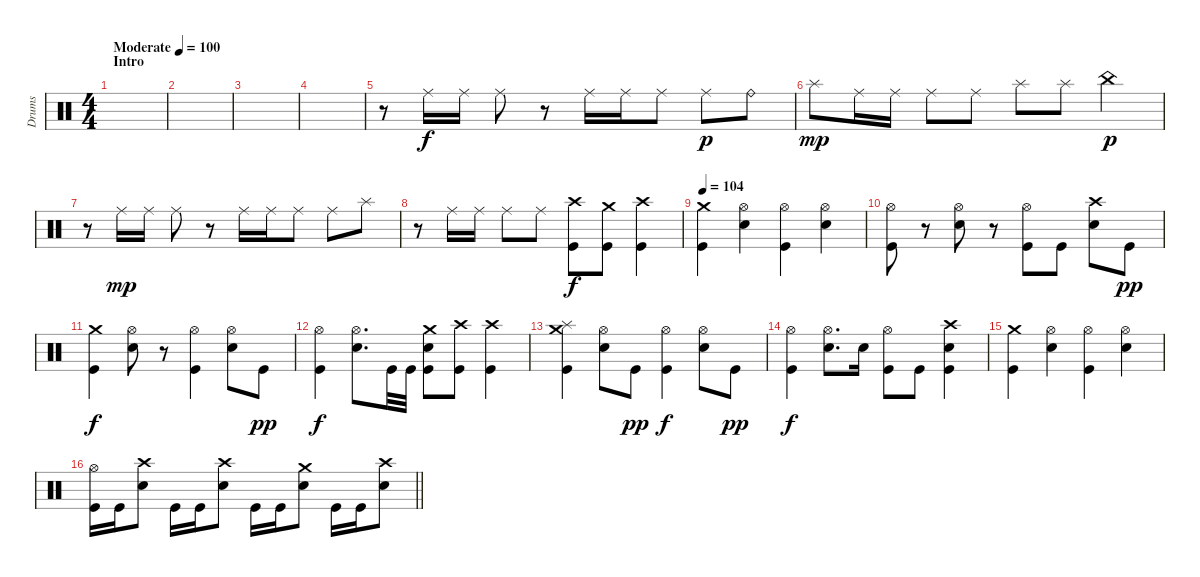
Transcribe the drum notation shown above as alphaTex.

\track ("Drums" "Drums") {instrument percussion}
\staff {score}
\articulation defaults
\ts (4 4)
\section ("" "Intro")
\tempo (100 "Moderate")
\clef neutral
\ks c
|
|
|
|
r.8 "Ride (middle)".16 "Ride (middle)".16 "Ride (middle)".8 r.8 "Ride (middle)".16 "Ride (middle)".16 "Ride (middle)".8 "Ride (middle)".8{dy p} "Ride (bell)".8 |
"Splash (hit)".8{dy mp} "Ride (middle)".16 "Ride (middle)".16 "Ride (middle)".8 "Ride (middle)".8 "Splash (hit)".8 "Splash (hit)".8 "China (hit)".4{dy p} |
r.8 "Ride (middle)".16{dy mp} "Ride (middle)".16 "Ride (middle)".8 r.8 "Ride (middle)".16 "Ride (middle)".16 "Ride (middle)".8 "Ride (middle)".8 "Splash (hit)".8 |
r.8 "Ride (middle)".16 "Ride (middle)".16 "Ride (middle)".8 "Ride (middle)".8 ("Crash high (hit)" "Kick (hit)").8{dy f} ("Crash medium (hit)" "Kick (hit)").8 ("Crash high (hit)" "Kick (hit)").4 |
\tempo 104
("Crash medium (hit)" "Kick (hit)").4 ("Hi-Hat (open)" "Electric Snare (hit)").4 ("Hi-Hat (open)" "Kick (hit)").4 ("Hi-Hat (open)" "Electric Snare (hit)").4 |
("Hi-Hat (open)" "Kick (hit)").8 r.8 ("Hi-Hat (open)" "Electric Snare (hit)").8 r.8 ("Hi-Hat (open)" "Kick (hit)").8 "Kick (hit)".8 ("Crash high (hit)" "Electric Snare (hit)").8 "Kick (hit)".8{dy pp} |
("Crash medium (hit)" "Kick (hit)").4{dy f} ("Hi-Hat (open)" "Electric Snare (hit)").8 r.8 ("Hi-Hat (open)" "Kick (hit)").4 ("Hi-Hat (open)" "Electric Snare (hit)").8 "Kick (hit)".8{dy pp} |
("Hi-Hat (open)" "Kick (hit)").4{dy f} ("Hi-Hat (open)" "Electric Snare (hit)").8{d} "Kick (hit)".32 "Kick (hit)".32 ("Crash medium (hit)" "Electric Snare (hit)" "Kick (hit)").8 ("Crash high (hit)" "Kick (hit)").8 ("Crash high (hit)" "Kick (hit)").4 |
("Crash medium (hit)" "Splash (hit)" "Kick (hit)").4 ("Hi-Hat (open)" "Electric Snare (hit)").8 "Kick (hit)".8{dy pp} ("Hi-Hat (open)" "Kick (hit)").4{dy f} ("Hi-Hat (open)" "Electric Snare (hit)").8 "Kick (hit)".8{dy pp} |
("Hi-Hat (open)" "Kick (hit)").4{dy f} ("Hi-Hat (open)" "Electric Snare (hit)").8{d} "Electric Snare (hit)".16 ("Hi-Hat (open)" "Kick (hit)").8 "Kick (hit)".8 ("Crash high (hit)" "Electric Snare (hit)" "Kick (hit)").4 |
("Crash medium (hit)" "Kick (hit)").4 ("Hi-Hat (open)" "Electric Snare (hit)").4 ("Hi-Hat (open)" "Kick (hit)").4 ("Hi-Hat (open)" "Electric Snare (hit)").4 |
\barLineRight lightlight
("Hi-Hat (open)" "Kick (hit)").16 "Kick (hit)".16 ("Crash high (hit)" "Electric Snare (hit)").8 "Kick (hit)".16 "Kick (hit)".16 ("Crash high (hit)" "Electric Snare (hit)").8 "Kick (hit)".16 "Kick (hit)".16 ("Crash medium (hit)" "Electric Snare (hit)").8 "Kick (hit)".16 "Kick (hit)".16 ("Crash high (hit)" "Electric Snare (hit)").8
